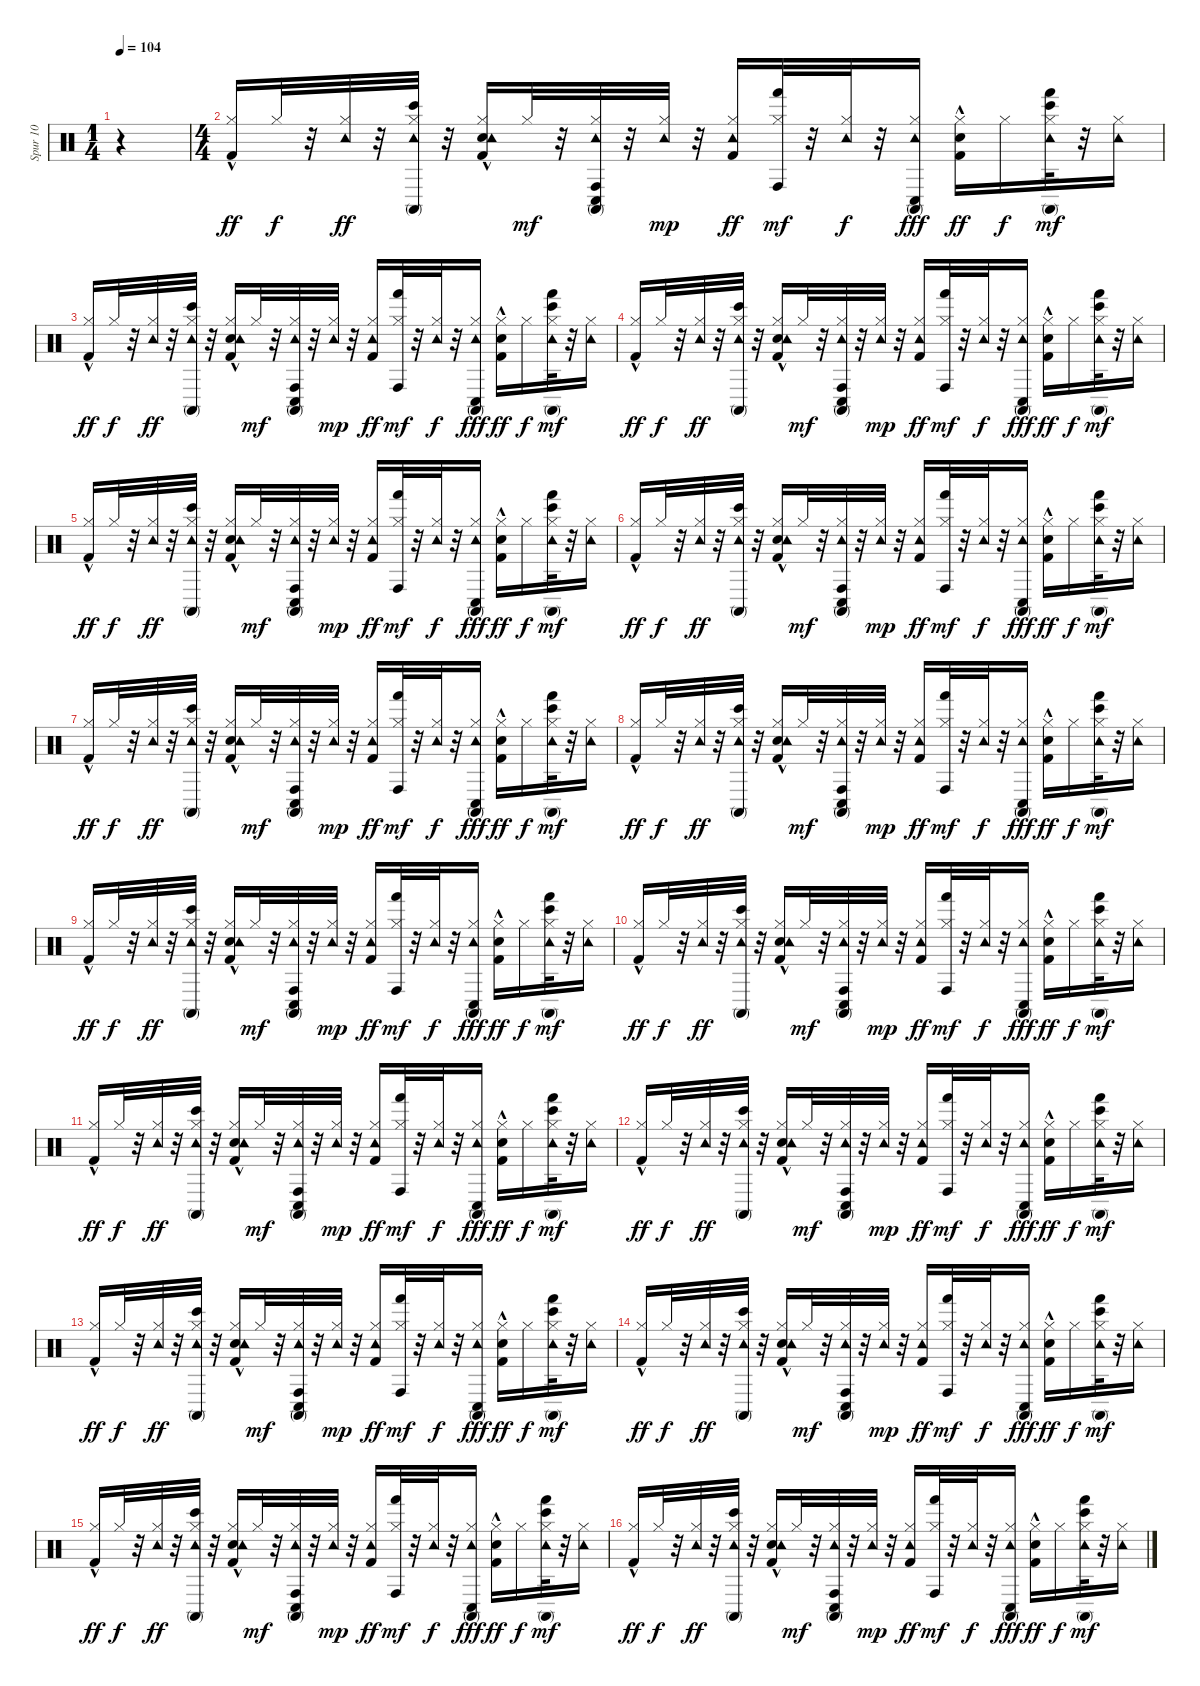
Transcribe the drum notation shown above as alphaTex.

\track ("Spur 10" "Spur 10") {instrument percussion}
\staff {score}
\articulation defaults
\ts (1 4)
\tempo 104
\clef neutral
\ks c
r.4{dy ff} |
\ts (4 4)
("Kick (hit) 2"{hac} "Hi-Hat (closed)").16 "Hi-Hat (closed)".32{dy f} r.32 ("Tambourine (hit)" "Hi-Hat (closed)").32{dy ff} r.32 ("Bongo High (hit)" "Conga high (mute)" "Tambourine (hit)" "Hi-Hat (closed)").32 r.32 ("Electric Snare (hit)" "Kick (hit) 2"{hac} "Tambourine (hit)" "Hi-Hat (closed)").16 "Hi-Hat (closed)".32{dy mf} r.32 ("Conga high (hit)" "Conga low (hit)" "Conga high (mute)" "Tambourine (hit)" "Hi-Hat (closed)").32 r.32 ("Tambourine (hit)" "Hi-Hat (closed)").32{dy mp} r.32 ("Kick (hit) 2" "Tambourine (hit)" "Hi-Hat (closed)").16{dy ff} ("Hand (hit)" "Conga high (hit)" "Hi-Hat (closed)").32{dy mf} r.32 ("Tambourine (hit)" "Hi-Hat (closed)").32{dy f} r.32 ("Conga high (mute)" "Conga low (hit)" "Tambourine (hit)" "Hi-Hat (closed)").16{dy fff} ("Electric Snare (hit)"{hac} "Kick (hit) 2" "Hi-Hat (closed)").16{dy ff} "Hi-Hat (closed)".16{dy f} ("Hand (hit)" "Bongo High (hit)" "Conga high (mute)" "Tambourine (hit)" "Hi-Hat (closed)").32{dy mf} r.32 ("Tambourine (hit)" "Hi-Hat (closed)").16 |
("Kick (hit) 2"{hac} "Hi-Hat (closed)").16{dy ff} "Hi-Hat (closed)".32{dy f} r.32 ("Tambourine (hit)" "Hi-Hat (closed)").32{dy ff} r.32 ("Bongo High (hit)" "Conga high (mute)" "Tambourine (hit)" "Hi-Hat (closed)").32 r.32 ("Electric Snare (hit)" "Kick (hit) 2"{hac} "Tambourine (hit)" "Hi-Hat (closed)").16 "Hi-Hat (closed)".32{dy mf} r.32 ("Conga high (hit)" "Conga low (hit)" "Conga high (mute)" "Tambourine (hit)" "Hi-Hat (closed)").32 r.32 ("Tambourine (hit)" "Hi-Hat (closed)").32{dy mp} r.32 ("Kick (hit) 2" "Tambourine (hit)" "Hi-Hat (closed)").16{dy ff} ("Hand (hit)" "Conga high (hit)" "Hi-Hat (closed)").32{dy mf} r.32 ("Tambourine (hit)" "Hi-Hat (closed)").32{dy f} r.32 ("Conga high (mute)" "Conga low (hit)" "Tambourine (hit)" "Hi-Hat (closed)").16{dy fff} ("Electric Snare (hit)"{hac} "Kick (hit) 2" "Hi-Hat (closed)").16{dy ff} "Hi-Hat (closed)".16{dy f} ("Hand (hit)" "Bongo High (hit)" "Conga high (mute)" "Tambourine (hit)" "Hi-Hat (closed)").32{dy mf} r.32 ("Tambourine (hit)" "Hi-Hat (closed)").16 |
("Kick (hit) 2"{hac} "Hi-Hat (closed)").16{dy ff} "Hi-Hat (closed)".32{dy f} r.32 ("Tambourine (hit)" "Hi-Hat (closed)").32{dy ff} r.32 ("Bongo High (hit)" "Conga high (mute)" "Tambourine (hit)" "Hi-Hat (closed)").32 r.32 ("Electric Snare (hit)" "Kick (hit) 2"{hac} "Tambourine (hit)" "Hi-Hat (closed)").16 "Hi-Hat (closed)".32{dy mf} r.32 ("Conga high (hit)" "Conga low (hit)" "Conga high (mute)" "Tambourine (hit)" "Hi-Hat (closed)").32 r.32 ("Tambourine (hit)" "Hi-Hat (closed)").32{dy mp} r.32 ("Kick (hit) 2" "Tambourine (hit)" "Hi-Hat (closed)").16{dy ff} ("Hand (hit)" "Conga high (hit)" "Hi-Hat (closed)").32{dy mf} r.32 ("Tambourine (hit)" "Hi-Hat (closed)").32{dy f} r.32 ("Conga high (mute)" "Conga low (hit)" "Tambourine (hit)" "Hi-Hat (closed)").16{dy fff} ("Electric Snare (hit)"{hac} "Kick (hit) 2" "Hi-Hat (closed)").16{dy ff} "Hi-Hat (closed)".16{dy f} ("Hand (hit)" "Bongo High (hit)" "Conga high (mute)" "Tambourine (hit)" "Hi-Hat (closed)").32{dy mf} r.32 ("Tambourine (hit)" "Hi-Hat (closed)").16 |
("Kick (hit) 2"{hac} "Hi-Hat (closed)").16{dy ff} "Hi-Hat (closed)".32{dy f} r.32 ("Tambourine (hit)" "Hi-Hat (closed)").32{dy ff} r.32 ("Bongo High (hit)" "Conga high (mute)" "Tambourine (hit)" "Hi-Hat (closed)").32 r.32 ("Electric Snare (hit)" "Kick (hit) 2"{hac} "Tambourine (hit)" "Hi-Hat (closed)").16 "Hi-Hat (closed)".32{dy mf} r.32 ("Conga high (hit)" "Conga low (hit)" "Conga high (mute)" "Tambourine (hit)" "Hi-Hat (closed)").32 r.32 ("Tambourine (hit)" "Hi-Hat (closed)").32{dy mp} r.32 ("Kick (hit) 2" "Tambourine (hit)" "Hi-Hat (closed)").16{dy ff} ("Hand (hit)" "Conga high (hit)" "Hi-Hat (closed)").32{dy mf} r.32 ("Tambourine (hit)" "Hi-Hat (closed)").32{dy f} r.32 ("Conga high (mute)" "Conga low (hit)" "Tambourine (hit)" "Hi-Hat (closed)").16{dy fff} ("Electric Snare (hit)"{hac} "Kick (hit) 2" "Hi-Hat (closed)").16{dy ff} "Hi-Hat (closed)".16{dy f} ("Hand (hit)" "Bongo High (hit)" "Conga high (mute)" "Tambourine (hit)" "Hi-Hat (closed)").32{dy mf} r.32 ("Tambourine (hit)" "Hi-Hat (closed)").16 |
("Kick (hit) 2"{hac} "Hi-Hat (closed)").16{dy ff} "Hi-Hat (closed)".32{dy f} r.32 ("Tambourine (hit)" "Hi-Hat (closed)").32{dy ff} r.32 ("Bongo High (hit)" "Conga high (mute)" "Tambourine (hit)" "Hi-Hat (closed)").32 r.32 ("Electric Snare (hit)" "Kick (hit) 2"{hac} "Tambourine (hit)" "Hi-Hat (closed)").16 "Hi-Hat (closed)".32{dy mf} r.32 ("Conga high (hit)" "Conga low (hit)" "Conga high (mute)" "Tambourine (hit)" "Hi-Hat (closed)").32 r.32 ("Tambourine (hit)" "Hi-Hat (closed)").32{dy mp} r.32 ("Kick (hit) 2" "Tambourine (hit)" "Hi-Hat (closed)").16{dy ff} ("Hand (hit)" "Conga high (hit)" "Hi-Hat (closed)").32{dy mf} r.32 ("Tambourine (hit)" "Hi-Hat (closed)").32{dy f} r.32 ("Conga high (mute)" "Conga low (hit)" "Tambourine (hit)" "Hi-Hat (closed)").16{dy fff} ("Electric Snare (hit)"{hac} "Kick (hit) 2" "Hi-Hat (closed)").16{dy ff} "Hi-Hat (closed)".16{dy f} ("Hand (hit)" "Bongo High (hit)" "Conga high (mute)" "Tambourine (hit)" "Hi-Hat (closed)").32{dy mf} r.32 ("Tambourine (hit)" "Hi-Hat (closed)").16 |
("Kick (hit) 2"{hac} "Hi-Hat (closed)").16{dy ff} "Hi-Hat (closed)".32{dy f} r.32 ("Tambourine (hit)" "Hi-Hat (closed)").32{dy ff} r.32 ("Bongo High (hit)" "Conga high (mute)" "Tambourine (hit)" "Hi-Hat (closed)").32 r.32 ("Electric Snare (hit)" "Kick (hit) 2"{hac} "Tambourine (hit)" "Hi-Hat (closed)").16 "Hi-Hat (closed)".32{dy mf} r.32 ("Conga high (hit)" "Conga low (hit)" "Conga high (mute)" "Tambourine (hit)" "Hi-Hat (closed)").32 r.32 ("Tambourine (hit)" "Hi-Hat (closed)").32{dy mp} r.32 ("Kick (hit) 2" "Tambourine (hit)" "Hi-Hat (closed)").16{dy ff} ("Hand (hit)" "Conga high (hit)" "Hi-Hat (closed)").32{dy mf} r.32 ("Tambourine (hit)" "Hi-Hat (closed)").32{dy f} r.32 ("Conga high (mute)" "Conga low (hit)" "Tambourine (hit)" "Hi-Hat (closed)").16{dy fff} ("Electric Snare (hit)"{hac} "Kick (hit) 2" "Hi-Hat (closed)").16{dy ff} "Hi-Hat (closed)".16{dy f} ("Hand (hit)" "Bongo High (hit)" "Conga high (mute)" "Tambourine (hit)" "Hi-Hat (closed)").32{dy mf} r.32 ("Tambourine (hit)" "Hi-Hat (closed)").16 |
("Kick (hit) 2"{hac} "Hi-Hat (closed)").16{dy ff} "Hi-Hat (closed)".32{dy f} r.32 ("Tambourine (hit)" "Hi-Hat (closed)").32{dy ff} r.32 ("Bongo High (hit)" "Conga high (mute)" "Tambourine (hit)" "Hi-Hat (closed)").32 r.32 ("Electric Snare (hit)" "Kick (hit) 2"{hac} "Tambourine (hit)" "Hi-Hat (closed)").16 "Hi-Hat (closed)".32{dy mf} r.32 ("Conga high (hit)" "Conga low (hit)" "Conga high (mute)" "Tambourine (hit)" "Hi-Hat (closed)").32 r.32 ("Tambourine (hit)" "Hi-Hat (closed)").32{dy mp} r.32 ("Kick (hit) 2" "Tambourine (hit)" "Hi-Hat (closed)").16{dy ff} ("Hand (hit)" "Conga high (hit)" "Hi-Hat (closed)").32{dy mf} r.32 ("Tambourine (hit)" "Hi-Hat (closed)").32{dy f} r.32 ("Conga high (mute)" "Conga low (hit)" "Tambourine (hit)" "Hi-Hat (closed)").16{dy fff} ("Electric Snare (hit)"{hac} "Kick (hit) 2" "Hi-Hat (closed)").16{dy ff} "Hi-Hat (closed)".16{dy f} ("Hand (hit)" "Bongo High (hit)" "Conga high (mute)" "Tambourine (hit)" "Hi-Hat (closed)").32{dy mf} r.32 ("Tambourine (hit)" "Hi-Hat (closed)").16 |
("Kick (hit) 2"{hac} "Hi-Hat (closed)").16{dy ff} "Hi-Hat (closed)".32{dy f} r.32 ("Tambourine (hit)" "Hi-Hat (closed)").32{dy ff} r.32 ("Bongo High (hit)" "Conga high (mute)" "Tambourine (hit)" "Hi-Hat (closed)").32 r.32 ("Electric Snare (hit)" "Kick (hit) 2"{hac} "Tambourine (hit)" "Hi-Hat (closed)").16 "Hi-Hat (closed)".32{dy mf} r.32 ("Conga high (hit)" "Conga low (hit)" "Conga high (mute)" "Tambourine (hit)" "Hi-Hat (closed)").32 r.32 ("Tambourine (hit)" "Hi-Hat (closed)").32{dy mp} r.32 ("Kick (hit) 2" "Tambourine (hit)" "Hi-Hat (closed)").16{dy ff} ("Hand (hit)" "Conga high (hit)" "Hi-Hat (closed)").32{dy mf} r.32 ("Tambourine (hit)" "Hi-Hat (closed)").32{dy f} r.32 ("Conga high (mute)" "Conga low (hit)" "Tambourine (hit)" "Hi-Hat (closed)").16{dy fff} ("Electric Snare (hit)"{hac} "Kick (hit) 2" "Hi-Hat (closed)").16{dy ff} "Hi-Hat (closed)".16{dy f} ("Hand (hit)" "Bongo High (hit)" "Conga high (mute)" "Tambourine (hit)" "Hi-Hat (closed)").32{dy mf} r.32 ("Tambourine (hit)" "Hi-Hat (closed)").16 |
("Kick (hit) 2"{hac} "Hi-Hat (closed)").16{dy ff} "Hi-Hat (closed)".32{dy f} r.32 ("Tambourine (hit)" "Hi-Hat (closed)").32{dy ff} r.32 ("Bongo High (hit)" "Conga high (mute)" "Tambourine (hit)" "Hi-Hat (closed)").32 r.32 ("Electric Snare (hit)" "Kick (hit) 2"{hac} "Tambourine (hit)" "Hi-Hat (closed)").16 "Hi-Hat (closed)".32{dy mf} r.32 ("Conga high (hit)" "Conga low (hit)" "Conga high (mute)" "Tambourine (hit)" "Hi-Hat (closed)").32 r.32 ("Tambourine (hit)" "Hi-Hat (closed)").32{dy mp} r.32 ("Kick (hit) 2" "Tambourine (hit)" "Hi-Hat (closed)").16{dy ff} ("Hand (hit)" "Conga high (hit)" "Hi-Hat (closed)").32{dy mf} r.32 ("Tambourine (hit)" "Hi-Hat (closed)").32{dy f} r.32 ("Conga high (mute)" "Conga low (hit)" "Tambourine (hit)" "Hi-Hat (closed)").16{dy fff} ("Electric Snare (hit)"{hac} "Kick (hit) 2" "Hi-Hat (closed)").16{dy ff} "Hi-Hat (closed)".16{dy f} ("Hand (hit)" "Bongo High (hit)" "Conga high (mute)" "Tambourine (hit)" "Hi-Hat (closed)").32{dy mf} r.32 ("Tambourine (hit)" "Hi-Hat (closed)").16 |
("Kick (hit) 2"{hac} "Hi-Hat (closed)").16{dy ff} "Hi-Hat (closed)".32{dy f} r.32 ("Tambourine (hit)" "Hi-Hat (closed)").32{dy ff} r.32 ("Bongo High (hit)" "Conga high (mute)" "Tambourine (hit)" "Hi-Hat (closed)").32 r.32 ("Electric Snare (hit)" "Kick (hit) 2"{hac} "Tambourine (hit)" "Hi-Hat (closed)").16 "Hi-Hat (closed)".32{dy mf} r.32 ("Conga high (hit)" "Conga low (hit)" "Conga high (mute)" "Tambourine (hit)" "Hi-Hat (closed)").32 r.32 ("Tambourine (hit)" "Hi-Hat (closed)").32{dy mp} r.32 ("Kick (hit) 2" "Tambourine (hit)" "Hi-Hat (closed)").16{dy ff} ("Hand (hit)" "Conga high (hit)" "Hi-Hat (closed)").32{dy mf} r.32 ("Tambourine (hit)" "Hi-Hat (closed)").32{dy f} r.32 ("Conga high (mute)" "Conga low (hit)" "Tambourine (hit)" "Hi-Hat (closed)").16{dy fff} ("Electric Snare (hit)"{hac} "Kick (hit) 2" "Hi-Hat (closed)").16{dy ff} "Hi-Hat (closed)".16{dy f} ("Hand (hit)" "Bongo High (hit)" "Conga high (mute)" "Tambourine (hit)" "Hi-Hat (closed)").32{dy mf} r.32 ("Tambourine (hit)" "Hi-Hat (closed)").16 |
("Kick (hit) 2"{hac} "Hi-Hat (closed)").16{dy ff} "Hi-Hat (closed)".32{dy f} r.32 ("Tambourine (hit)" "Hi-Hat (closed)").32{dy ff} r.32 ("Bongo High (hit)" "Conga high (mute)" "Tambourine (hit)" "Hi-Hat (closed)").32 r.32 ("Electric Snare (hit)" "Kick (hit) 2"{hac} "Tambourine (hit)" "Hi-Hat (closed)").16 "Hi-Hat (closed)".32{dy mf} r.32 ("Conga high (hit)" "Conga low (hit)" "Conga high (mute)" "Tambourine (hit)" "Hi-Hat (closed)").32 r.32 ("Tambourine (hit)" "Hi-Hat (closed)").32{dy mp} r.32 ("Kick (hit) 2" "Tambourine (hit)" "Hi-Hat (closed)").16{dy ff} ("Hand (hit)" "Conga high (hit)" "Hi-Hat (closed)").32{dy mf} r.32 ("Tambourine (hit)" "Hi-Hat (closed)").32{dy f} r.32 ("Conga high (mute)" "Conga low (hit)" "Tambourine (hit)" "Hi-Hat (closed)").16{dy fff} ("Electric Snare (hit)"{hac} "Kick (hit) 2" "Hi-Hat (closed)").16{dy ff} "Hi-Hat (closed)".16{dy f} ("Hand (hit)" "Bongo High (hit)" "Conga high (mute)" "Tambourine (hit)" "Hi-Hat (closed)").32{dy mf} r.32 ("Tambourine (hit)" "Hi-Hat (closed)").16 |
("Kick (hit) 2"{hac} "Hi-Hat (closed)").16{dy ff} "Hi-Hat (closed)".32{dy f} r.32 ("Tambourine (hit)" "Hi-Hat (closed)").32{dy ff} r.32 ("Bongo High (hit)" "Conga high (mute)" "Tambourine (hit)" "Hi-Hat (closed)").32 r.32 ("Electric Snare (hit)" "Kick (hit) 2"{hac} "Tambourine (hit)" "Hi-Hat (closed)").16 "Hi-Hat (closed)".32{dy mf} r.32 ("Conga high (hit)" "Conga low (hit)" "Conga high (mute)" "Tambourine (hit)" "Hi-Hat (closed)").32 r.32 ("Tambourine (hit)" "Hi-Hat (closed)").32{dy mp} r.32 ("Kick (hit) 2" "Tambourine (hit)" "Hi-Hat (closed)").16{dy ff} ("Hand (hit)" "Conga high (hit)" "Hi-Hat (closed)").32{dy mf} r.32 ("Tambourine (hit)" "Hi-Hat (closed)").32{dy f} r.32 ("Conga high (mute)" "Conga low (hit)" "Tambourine (hit)" "Hi-Hat (closed)").16{dy fff} ("Electric Snare (hit)"{hac} "Kick (hit) 2" "Hi-Hat (closed)").16{dy ff} "Hi-Hat (closed)".16{dy f} ("Hand (hit)" "Bongo High (hit)" "Conga high (mute)" "Tambourine (hit)" "Hi-Hat (closed)").32{dy mf} r.32 ("Tambourine (hit)" "Hi-Hat (closed)").16 |
("Kick (hit) 2"{hac} "Hi-Hat (closed)").16{dy ff} "Hi-Hat (closed)".32{dy f} r.32 ("Tambourine (hit)" "Hi-Hat (closed)").32{dy ff} r.32 ("Bongo High (hit)" "Conga high (mute)" "Tambourine (hit)" "Hi-Hat (closed)").32 r.32 ("Electric Snare (hit)" "Kick (hit) 2"{hac} "Tambourine (hit)" "Hi-Hat (closed)").16 "Hi-Hat (closed)".32{dy mf} r.32 ("Conga high (hit)" "Conga low (hit)" "Conga high (mute)" "Tambourine (hit)" "Hi-Hat (closed)").32 r.32 ("Tambourine (hit)" "Hi-Hat (closed)").32{dy mp} r.32 ("Kick (hit) 2" "Tambourine (hit)" "Hi-Hat (closed)").16{dy ff} ("Hand (hit)" "Conga high (hit)" "Hi-Hat (closed)").32{dy mf} r.32 ("Tambourine (hit)" "Hi-Hat (closed)").32{dy f} r.32 ("Conga high (mute)" "Conga low (hit)" "Tambourine (hit)" "Hi-Hat (closed)").16{dy fff} ("Electric Snare (hit)"{hac} "Kick (hit) 2" "Hi-Hat (closed)").16{dy ff} "Hi-Hat (closed)".16{dy f} ("Hand (hit)" "Bongo High (hit)" "Conga high (mute)" "Tambourine (hit)" "Hi-Hat (closed)").32{dy mf} r.32 ("Tambourine (hit)" "Hi-Hat (closed)").16 |
("Kick (hit) 2"{hac} "Hi-Hat (closed)").16{dy ff} "Hi-Hat (closed)".32{dy f} r.32 ("Tambourine (hit)" "Hi-Hat (closed)").32{dy ff} r.32 ("Bongo High (hit)" "Conga high (mute)" "Tambourine (hit)" "Hi-Hat (closed)").32 r.32 ("Electric Snare (hit)" "Kick (hit) 2"{hac} "Tambourine (hit)" "Hi-Hat (closed)").16 "Hi-Hat (closed)".32{dy mf} r.32 ("Conga high (hit)" "Conga low (hit)" "Conga high (mute)" "Tambourine (hit)" "Hi-Hat (closed)").32 r.32 ("Tambourine (hit)" "Hi-Hat (closed)").32{dy mp} r.32 ("Kick (hit) 2" "Tambourine (hit)" "Hi-Hat (closed)").16{dy ff} ("Hand (hit)" "Conga high (hit)" "Hi-Hat (closed)").32{dy mf} r.32 ("Tambourine (hit)" "Hi-Hat (closed)").32{dy f} r.32 ("Conga high (mute)" "Conga low (hit)" "Tambourine (hit)" "Hi-Hat (closed)").16{dy fff} ("Electric Snare (hit)"{hac} "Kick (hit) 2" "Hi-Hat (closed)").16{dy ff} "Hi-Hat (closed)".16{dy f} ("Hand (hit)" "Bongo High (hit)" "Conga high (mute)" "Tambourine (hit)" "Hi-Hat (closed)").32{dy mf} r.32 ("Tambourine (hit)" "Hi-Hat (closed)").16 |
("Kick (hit) 2"{hac} "Hi-Hat (closed)").16{dy ff} "Hi-Hat (closed)".32{dy f} r.32 ("Tambourine (hit)" "Hi-Hat (closed)").32{dy ff} r.32 ("Bongo High (hit)" "Conga high (mute)" "Tambourine (hit)" "Hi-Hat (closed)").32 r.32 ("Electric Snare (hit)" "Kick (hit) 2"{hac} "Tambourine (hit)" "Hi-Hat (closed)").16 "Hi-Hat (closed)".32{dy mf} r.32 ("Conga high (hit)" "Conga low (hit)" "Conga high (mute)" "Tambourine (hit)" "Hi-Hat (closed)").32 r.32 ("Tambourine (hit)" "Hi-Hat (closed)").32{dy mp} r.32 ("Kick (hit) 2" "Tambourine (hit)" "Hi-Hat (closed)").16{dy ff} ("Hand (hit)" "Conga high (hit)" "Hi-Hat (closed)").32{dy mf} r.32 ("Tambourine (hit)" "Hi-Hat (closed)").32{dy f} r.32 ("Conga high (mute)" "Conga low (hit)" "Tambourine (hit)" "Hi-Hat (closed)").16{dy fff} ("Electric Snare (hit)"{hac} "Kick (hit) 2" "Hi-Hat (closed)").16{dy ff} "Hi-Hat (closed)".16{dy f} ("Hand (hit)" "Bongo High (hit)" "Conga high (mute)" "Tambourine (hit)" "Hi-Hat (closed)").32{dy mf} r.32 ("Tambourine (hit)" "Hi-Hat (closed)").16
